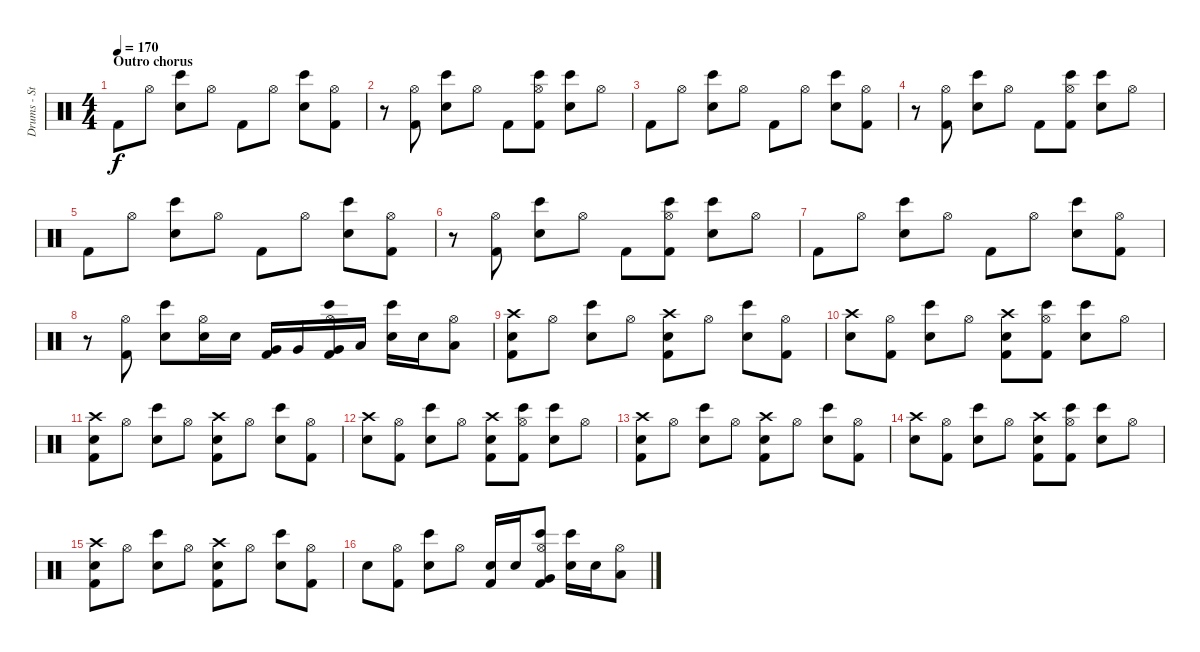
\track ("Drums - Steeve" "Drums - St") {instrument percussion}
\staff {score}
\articulation defaults
\ts (4 4)
\section ("" "Outro chorus")
\tempo 170
\clef neutral
\ks c "Kick (hit) 2".8{dy f} "Hi-Hat (open)".8
("Electric Snare (hit)" "Bongo High (hit)").8 "Hi-Hat (open)".8 "Kick (hit) 2".8 "Hi-Hat (open)".8 ("Electric Snare (hit)" "Bongo High (hit)").8 ("Hi-Hat (open)" "Kick (hit) 2").8 |
r.8 ("Hi-Hat (open)" "Kick (hit) 2").8 ("Electric Snare (hit)" "Bongo High (hit)").8 "Hi-Hat (open)".8 "Kick (hit) 2".8 ("Hi-Hat (open)" "Kick (hit) 2" "Bongo High (hit)").8 ("Electric Snare (hit)" "Bongo High (hit)").8 "Hi-Hat (open)".8 |
"Kick (hit) 2".8 "Hi-Hat (open)".8 ("Electric Snare (hit)" "Bongo High (hit)").8 "Hi-Hat (open)".8 "Kick (hit) 2".8 "Hi-Hat (open)".8 ("Electric Snare (hit)" "Bongo High (hit)").8 ("Hi-Hat (open)" "Kick (hit) 2").8 |
r.8 ("Hi-Hat (open)" "Kick (hit) 2").8 ("Electric Snare (hit)" "Bongo High (hit)").8 "Hi-Hat (open)".8 "Kick (hit) 2".8 ("Hi-Hat (open)" "Kick (hit) 2" "Bongo High (hit)").8 ("Electric Snare (hit)" "Bongo High (hit)").8 "Hi-Hat (open)".8 |
"Kick (hit) 2".8 "Hi-Hat (open)".8 ("Electric Snare (hit)" "Bongo High (hit)").8 "Hi-Hat (open)".8 "Kick (hit) 2".8 "Hi-Hat (open)".8 ("Electric Snare (hit)" "Bongo High (hit)").8 ("Hi-Hat (open)" "Kick (hit) 2").8 |
r.8 ("Hi-Hat (open)" "Kick (hit) 2").8 ("Electric Snare (hit)" "Bongo High (hit)").8 "Hi-Hat (open)".8 "Kick (hit) 2".8 ("Hi-Hat (open)" "Kick (hit) 2" "Bongo High (hit)").8 ("Electric Snare (hit)" "Bongo High (hit)").8 "Hi-Hat (open)".8 |
"Kick (hit) 2".8 "Hi-Hat (open)".8 ("Electric Snare (hit)" "Bongo High (hit)").8 "Hi-Hat (open)".8 "Kick (hit) 2".8 "Hi-Hat (open)".8 ("Electric Snare (hit)" "Bongo High (hit)").8 ("Hi-Hat (open)" "Kick (hit) 2").8 |
r.8 ("Hi-Hat (open)" "Kick (hit) 2").8 ("Electric Snare (hit)" "Bongo High (hit)").8 ("Hi-Hat (open)" "Electric Snare (hit)").16 "Electric Snare (hit)".16 ("Kick (hit) 2" "Very Low Tom (hit)").16 "Very Low Tom (hit)".16 ("Hi-Hat (open)" "Kick (hit) 2" "Very Low Tom (hit)" "Bongo High (hit)").16 "Low Floor Tom (hit)".16 ("Electric Snare (hit)" "Bongo High (hit)").16 "Electric Snare (hit)".16 ("Hi-Hat (open)" "Low Floor Tom (hit)").8 |
("Crash high (hit)" "Kick (hit) 2" "Electric Snare (hit)").8 "Hi-Hat (open)".8 ("Electric Snare (hit)" "Bongo High (hit)").8 "Hi-Hat (open)".8 ("Crash high (hit)" "Kick (hit) 2" "Electric Snare (hit)").8 "Hi-Hat (open)".8 ("Electric Snare (hit)" "Bongo High (hit)").8 ("Hi-Hat (open)" "Kick (hit) 2").8 |
("Crash high (hit)" "Electric Snare (hit)").8 ("Hi-Hat (open)" "Kick (hit) 2").8 ("Electric Snare (hit)" "Bongo High (hit)").8 "Hi-Hat (open)".8 ("Crash high (hit)" "Kick (hit) 2" "Electric Snare (hit)").8 ("Hi-Hat (open)" "Kick (hit) 2" "Bongo High (hit)").8 ("Electric Snare (hit)" "Bongo High (hit)").8 "Hi-Hat (open)".8 |
("Crash high (hit)" "Kick (hit) 2" "Electric Snare (hit)").8 "Hi-Hat (open)".8 ("Electric Snare (hit)" "Bongo High (hit)").8 "Hi-Hat (open)".8 ("Crash high (hit)" "Kick (hit) 2" "Electric Snare (hit)").8 "Hi-Hat (open)".8 ("Electric Snare (hit)" "Bongo High (hit)").8 ("Hi-Hat (open)" "Kick (hit) 2").8 |
("Crash high (hit)" "Electric Snare (hit)").8 ("Hi-Hat (open)" "Kick (hit) 2").8 ("Electric Snare (hit)" "Bongo High (hit)").8 "Hi-Hat (open)".8 ("Crash high (hit)" "Kick (hit) 2" "Electric Snare (hit)").8 ("Hi-Hat (open)" "Kick (hit) 2" "Bongo High (hit)").8 ("Electric Snare (hit)" "Bongo High (hit)").8 "Hi-Hat (open)".8 |
("Crash high (hit)" "Kick (hit) 2" "Electric Snare (hit)").8 "Hi-Hat (open)".8 ("Electric Snare (hit)" "Bongo High (hit)").8 "Hi-Hat (open)".8 ("Crash high (hit)" "Kick (hit) 2" "Electric Snare (hit)").8 "Hi-Hat (open)".8 ("Electric Snare (hit)" "Bongo High (hit)").8 ("Hi-Hat (open)" "Kick (hit) 2").8 |
("Crash high (hit)" "Electric Snare (hit)").8 ("Hi-Hat (open)" "Kick (hit) 2").8 ("Electric Snare (hit)" "Bongo High (hit)").8 "Hi-Hat (open)".8 ("Crash high (hit)" "Kick (hit) 2" "Electric Snare (hit)").8 ("Hi-Hat (open)" "Kick (hit) 2" "Bongo High (hit)").8 ("Electric Snare (hit)" "Bongo High (hit)").8 "Hi-Hat (open)".8 |
("Crash high (hit)" "Kick (hit) 2" "Electric Snare (hit)").8 "Hi-Hat (open)".8 ("Electric Snare (hit)" "Bongo High (hit)").8 "Hi-Hat (open)".8 ("Crash high (hit)" "Kick (hit) 2" "Electric Snare (hit)").8 "Hi-Hat (open)".8 ("Electric Snare (hit)" "Bongo High (hit)").8 ("Hi-Hat (open)" "Kick (hit) 2").8 |
"Electric Snare (hit)".8 ("Hi-Hat (open)" "Kick (hit) 2").8 ("Electric Snare (hit)" "Bongo High (hit)").8 "Hi-Hat (open)".8 ("Kick (hit) 2" "Electric Snare (hit)").16 "Electric Snare (hit)".16 ("Hi-Hat (open)" "Kick (hit) 2" "Very Low Tom (hit)" "Bongo High (hit)").8 ("Electric Snare (hit)" "Bongo High (hit)").16 "Electric Snare (hit)".16 ("Hi-Hat (open)" "Low Floor Tom (hit)").8
